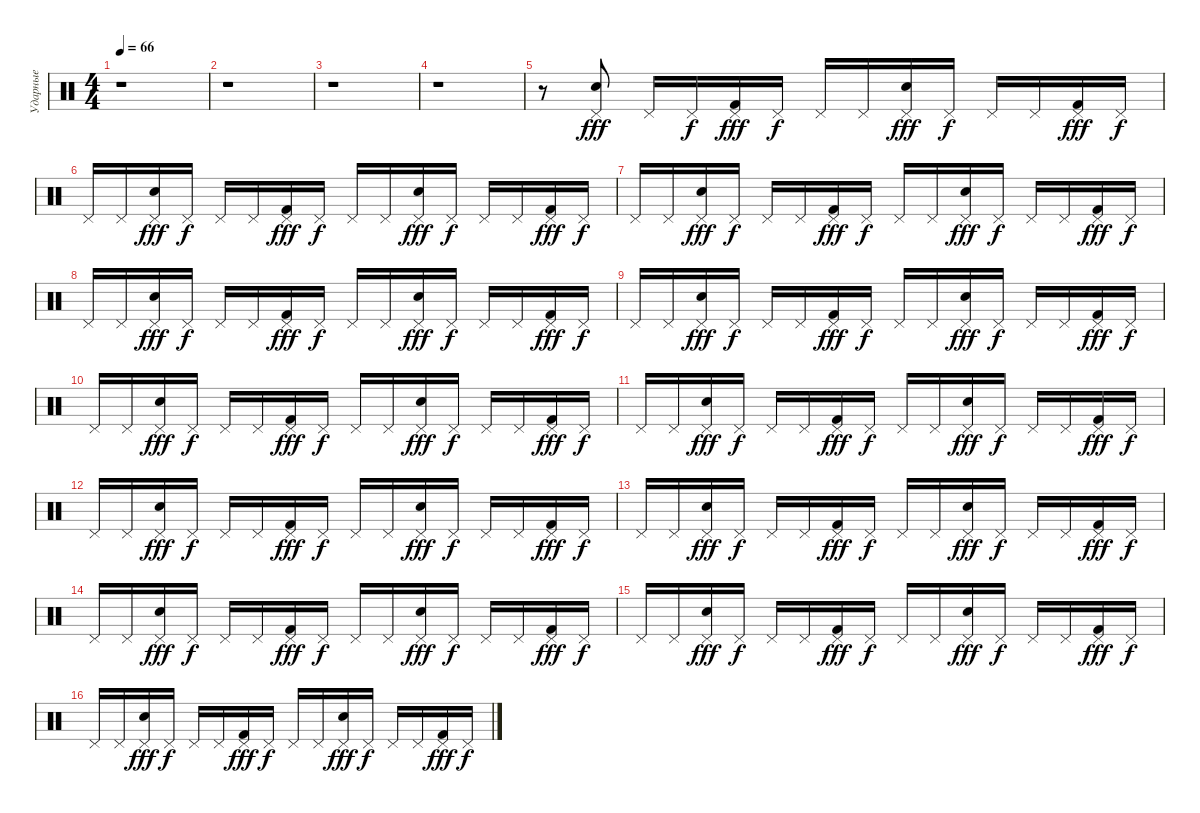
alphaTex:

\track ("Ударные" "Ударные") {instrument percussion}
\staff {score}
\articulation defaults
\ts (4 4)
\tempo 66
\clef neutral
\ks c
r.1{dy fff} |
r.1 |
r.1 |
r.1 |
r.8 ("Snare (hit) 2" "Pedal Hi-Hat (hit)").8 "Pedal Hi-Hat (hit)".16 "Pedal Hi-Hat (hit)".16{dy f} ("Kick (hit) 2" "Pedal Hi-Hat (hit)").16{dy fff} "Pedal Hi-Hat (hit)".16{dy f} "Pedal Hi-Hat (hit)".16 "Pedal Hi-Hat (hit)".16 ("Snare (hit) 2" "Pedal Hi-Hat (hit)").16{dy fff} "Pedal Hi-Hat (hit)".16{dy f} "Pedal Hi-Hat (hit)".16 "Pedal Hi-Hat (hit)".16 ("Kick (hit) 2" "Pedal Hi-Hat (hit)").16{dy fff} "Pedal Hi-Hat (hit)".16{dy f} |
"Pedal Hi-Hat (hit)".16 "Pedal Hi-Hat (hit)".16 ("Snare (hit) 2" "Pedal Hi-Hat (hit)").16{dy fff} "Pedal Hi-Hat (hit)".16{dy f} "Pedal Hi-Hat (hit)".16 "Pedal Hi-Hat (hit)".16 ("Kick (hit) 2" "Pedal Hi-Hat (hit)").16{dy fff} "Pedal Hi-Hat (hit)".16{dy f} "Pedal Hi-Hat (hit)".16 "Pedal Hi-Hat (hit)".16 ("Snare (hit) 2" "Pedal Hi-Hat (hit)").16{dy fff} "Pedal Hi-Hat (hit)".16{dy f} "Pedal Hi-Hat (hit)".16 "Pedal Hi-Hat (hit)".16 ("Kick (hit) 2" "Pedal Hi-Hat (hit)").16{dy fff} "Pedal Hi-Hat (hit)".16{dy f} |
"Pedal Hi-Hat (hit)".16 "Pedal Hi-Hat (hit)".16 ("Snare (hit) 2" "Pedal Hi-Hat (hit)").16{dy fff} "Pedal Hi-Hat (hit)".16{dy f} "Pedal Hi-Hat (hit)".16 "Pedal Hi-Hat (hit)".16 ("Kick (hit) 2" "Pedal Hi-Hat (hit)").16{dy fff} "Pedal Hi-Hat (hit)".16{dy f} "Pedal Hi-Hat (hit)".16 "Pedal Hi-Hat (hit)".16 ("Snare (hit) 2" "Pedal Hi-Hat (hit)").16{dy fff} "Pedal Hi-Hat (hit)".16{dy f} "Pedal Hi-Hat (hit)".16 "Pedal Hi-Hat (hit)".16 ("Kick (hit) 2" "Pedal Hi-Hat (hit)").16{dy fff} "Pedal Hi-Hat (hit)".16{dy f} |
"Pedal Hi-Hat (hit)".16 "Pedal Hi-Hat (hit)".16 ("Snare (hit) 2" "Pedal Hi-Hat (hit)").16{dy fff} "Pedal Hi-Hat (hit)".16{dy f} "Pedal Hi-Hat (hit)".16 "Pedal Hi-Hat (hit)".16 ("Kick (hit) 2" "Pedal Hi-Hat (hit)").16{dy fff} "Pedal Hi-Hat (hit)".16{dy f} "Pedal Hi-Hat (hit)".16 "Pedal Hi-Hat (hit)".16 ("Snare (hit) 2" "Pedal Hi-Hat (hit)").16{dy fff} "Pedal Hi-Hat (hit)".16{dy f} "Pedal Hi-Hat (hit)".16 "Pedal Hi-Hat (hit)".16 ("Kick (hit) 2" "Pedal Hi-Hat (hit)").16{dy fff} "Pedal Hi-Hat (hit)".16{dy f} |
"Pedal Hi-Hat (hit)".16 "Pedal Hi-Hat (hit)".16 ("Snare (hit) 2" "Pedal Hi-Hat (hit)").16{dy fff} "Pedal Hi-Hat (hit)".16{dy f} "Pedal Hi-Hat (hit)".16 "Pedal Hi-Hat (hit)".16 ("Kick (hit) 2" "Pedal Hi-Hat (hit)").16{dy fff} "Pedal Hi-Hat (hit)".16{dy f} "Pedal Hi-Hat (hit)".16 "Pedal Hi-Hat (hit)".16 ("Snare (hit) 2" "Pedal Hi-Hat (hit)").16{dy fff} "Pedal Hi-Hat (hit)".16{dy f} "Pedal Hi-Hat (hit)".16 "Pedal Hi-Hat (hit)".16 ("Kick (hit) 2" "Pedal Hi-Hat (hit)").16{dy fff} "Pedal Hi-Hat (hit)".16{dy f} |
"Pedal Hi-Hat (hit)".16 "Pedal Hi-Hat (hit)".16 ("Snare (hit) 2" "Pedal Hi-Hat (hit)").16{dy fff} "Pedal Hi-Hat (hit)".16{dy f} "Pedal Hi-Hat (hit)".16 "Pedal Hi-Hat (hit)".16 ("Kick (hit) 2" "Pedal Hi-Hat (hit)").16{dy fff} "Pedal Hi-Hat (hit)".16{dy f} "Pedal Hi-Hat (hit)".16 "Pedal Hi-Hat (hit)".16 ("Snare (hit) 2" "Pedal Hi-Hat (hit)").16{dy fff} "Pedal Hi-Hat (hit)".16{dy f} "Pedal Hi-Hat (hit)".16 "Pedal Hi-Hat (hit)".16 ("Kick (hit) 2" "Pedal Hi-Hat (hit)").16{dy fff} "Pedal Hi-Hat (hit)".16{dy f} |
"Pedal Hi-Hat (hit)".16 "Pedal Hi-Hat (hit)".16 ("Snare (hit) 2" "Pedal Hi-Hat (hit)").16{dy fff} "Pedal Hi-Hat (hit)".16{dy f} "Pedal Hi-Hat (hit)".16 "Pedal Hi-Hat (hit)".16 ("Kick (hit) 2" "Pedal Hi-Hat (hit)").16{dy fff} "Pedal Hi-Hat (hit)".16{dy f} "Pedal Hi-Hat (hit)".16 "Pedal Hi-Hat (hit)".16 ("Snare (hit) 2" "Pedal Hi-Hat (hit)").16{dy fff} "Pedal Hi-Hat (hit)".16{dy f} "Pedal Hi-Hat (hit)".16 "Pedal Hi-Hat (hit)".16 ("Kick (hit) 2" "Pedal Hi-Hat (hit)").16{dy fff} "Pedal Hi-Hat (hit)".16{dy f} |
"Pedal Hi-Hat (hit)".16 "Pedal Hi-Hat (hit)".16 ("Snare (hit) 2" "Pedal Hi-Hat (hit)").16{dy fff} "Pedal Hi-Hat (hit)".16{dy f} "Pedal Hi-Hat (hit)".16 "Pedal Hi-Hat (hit)".16 ("Kick (hit) 2" "Pedal Hi-Hat (hit)").16{dy fff} "Pedal Hi-Hat (hit)".16{dy f} "Pedal Hi-Hat (hit)".16 "Pedal Hi-Hat (hit)".16 ("Snare (hit) 2" "Pedal Hi-Hat (hit)").16{dy fff} "Pedal Hi-Hat (hit)".16{dy f} "Pedal Hi-Hat (hit)".16 "Pedal Hi-Hat (hit)".16 ("Kick (hit) 2" "Pedal Hi-Hat (hit)").16{dy fff} "Pedal Hi-Hat (hit)".16{dy f} |
"Pedal Hi-Hat (hit)".16 "Pedal Hi-Hat (hit)".16 ("Snare (hit) 2" "Pedal Hi-Hat (hit)").16{dy fff} "Pedal Hi-Hat (hit)".16{dy f} "Pedal Hi-Hat (hit)".16 "Pedal Hi-Hat (hit)".16 ("Kick (hit) 2" "Pedal Hi-Hat (hit)").16{dy fff} "Pedal Hi-Hat (hit)".16{dy f} "Pedal Hi-Hat (hit)".16 "Pedal Hi-Hat (hit)".16 ("Snare (hit) 2" "Pedal Hi-Hat (hit)").16{dy fff} "Pedal Hi-Hat (hit)".16{dy f} "Pedal Hi-Hat (hit)".16 "Pedal Hi-Hat (hit)".16 ("Kick (hit) 2" "Pedal Hi-Hat (hit)").16{dy fff} "Pedal Hi-Hat (hit)".16{dy f} |
"Pedal Hi-Hat (hit)".16 "Pedal Hi-Hat (hit)".16 ("Snare (hit) 2" "Pedal Hi-Hat (hit)").16{dy fff} "Pedal Hi-Hat (hit)".16{dy f} "Pedal Hi-Hat (hit)".16 "Pedal Hi-Hat (hit)".16 ("Kick (hit) 2" "Pedal Hi-Hat (hit)").16{dy fff} "Pedal Hi-Hat (hit)".16{dy f} "Pedal Hi-Hat (hit)".16 "Pedal Hi-Hat (hit)".16 ("Snare (hit) 2" "Pedal Hi-Hat (hit)").16{dy fff} "Pedal Hi-Hat (hit)".16{dy f} "Pedal Hi-Hat (hit)".16 "Pedal Hi-Hat (hit)".16 ("Kick (hit) 2" "Pedal Hi-Hat (hit)").16{dy fff} "Pedal Hi-Hat (hit)".16{dy f} |
"Pedal Hi-Hat (hit)".16 "Pedal Hi-Hat (hit)".16 ("Snare (hit) 2" "Pedal Hi-Hat (hit)").16{dy fff} "Pedal Hi-Hat (hit)".16{dy f} "Pedal Hi-Hat (hit)".16 "Pedal Hi-Hat (hit)".16 ("Kick (hit) 2" "Pedal Hi-Hat (hit)").16{dy fff} "Pedal Hi-Hat (hit)".16{dy f} "Pedal Hi-Hat (hit)".16 "Pedal Hi-Hat (hit)".16 ("Snare (hit) 2" "Pedal Hi-Hat (hit)").16{dy fff} "Pedal Hi-Hat (hit)".16{dy f} "Pedal Hi-Hat (hit)".16 "Pedal Hi-Hat (hit)".16 ("Kick (hit) 2" "Pedal Hi-Hat (hit)").16{dy fff} "Pedal Hi-Hat (hit)".16{dy f} |
"Pedal Hi-Hat (hit)".16 "Pedal Hi-Hat (hit)".16 ("Snare (hit) 2" "Pedal Hi-Hat (hit)").16{dy fff} "Pedal Hi-Hat (hit)".16{dy f} "Pedal Hi-Hat (hit)".16 "Pedal Hi-Hat (hit)".16 ("Kick (hit) 2" "Pedal Hi-Hat (hit)").16{dy fff} "Pedal Hi-Hat (hit)".16{dy f} "Pedal Hi-Hat (hit)".16 "Pedal Hi-Hat (hit)".16 ("Snare (hit) 2" "Pedal Hi-Hat (hit)").16{dy fff} "Pedal Hi-Hat (hit)".16{dy f} "Pedal Hi-Hat (hit)".16 "Pedal Hi-Hat (hit)".16 ("Kick (hit) 2" "Pedal Hi-Hat (hit)").16{dy fff} "Pedal Hi-Hat (hit)".16{dy f}
